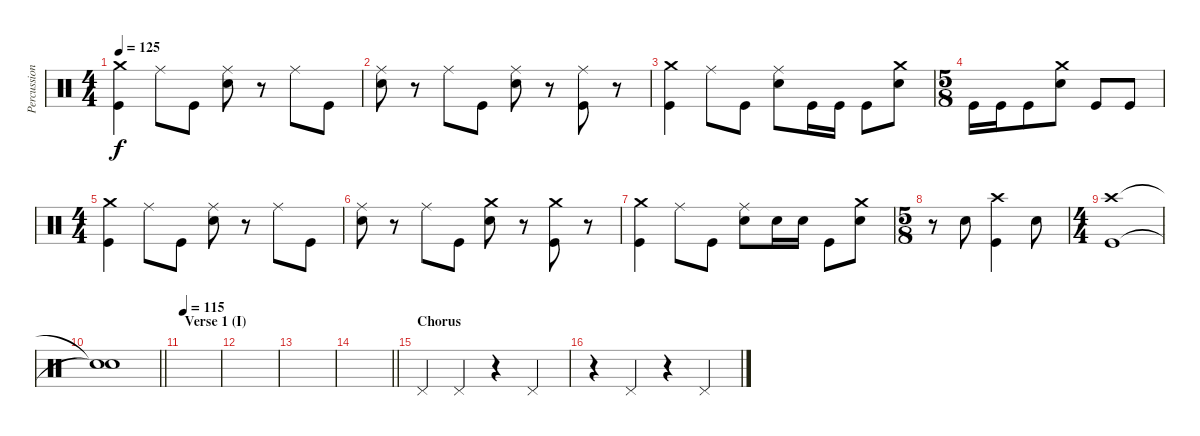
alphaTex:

\track ("Percussion" "Percussion") {instrument percussion}
\staff {score}
\articulation defaults
\ts (4 4)
\tempo 125
\clef neutral
\ks c
("Crash medium (hit)" "Kick (hit)").4{dy f} "Ride (middle)".8 "Kick (hit)".8 ("Ride (middle)" "Snare (hit) 2").8 r.8 "Ride (middle)".8 "Kick (hit)".8 |
("Ride (middle)" "Snare (hit) 2").8 r.8 "Ride (middle)".8 "Kick (hit)".8 ("Ride (middle)" "Snare (hit) 2").8 r.8 ("Ride (middle)" "Kick (hit)").8 r.8 |
("Crash medium (hit)" "Kick (hit)").4 "Ride (middle)".8 "Kick (hit)".8 ("Ride (middle)" "Snare (hit) 2").8 "Kick (hit)".16 "Kick (hit)".16 "Kick (hit)".8 ("Crash medium (hit)" "Snare (hit) 2").8 |
\ts (5 8)
"Kick (hit)".16 "Kick (hit)".16 "Kick (hit)".8 ("Crash medium (hit)" "Snare (hit) 2").8 "Kick (hit)".8 "Kick (hit)".8 |
\ts (4 4)
("Crash medium (hit)" "Kick (hit)").4 "Ride (middle)".8 "Kick (hit)".8 ("Ride (middle)" "Snare (hit) 2").8 r.8 "Ride (middle)".8 "Kick (hit)".8 |
("Ride (middle)" "Snare (hit) 2").8 r.8 "Ride (middle)".8 "Kick (hit)".8 ("Crash medium (hit)" "Snare (hit) 2").8 r.8 ("Crash medium (hit)" "Kick (hit)").8 r.8 |
("Crash medium (hit)" "Kick (hit)").4 "Ride (middle)".8 "Kick (hit)".8 ("Ride (middle)" "Snare (hit) 2").8 "Snare (hit) 2".16 "Snare (hit) 2".16 "Kick (hit)".8 ("Crash medium (hit)" "Snare (hit) 2").8 |
\ts (5 8)
r.8 "Snare (hit) 2".8 ("Crash high (hit)" "Kick (hit)").4 "Snare (hit) 2".8 |
\ts (4 4)
("Crash high (hit)" "Kick (hit)").1 |
\barLineRight lightlight
("Snare (hit)"{t} "Snare (hit)"{t}).1 |
\section ("" "Verse 1 (I)")
\tempo 115
|
|
|
\barLineRight lightlight
|
\section ("" "Chorus")
"Pedal Hi-Hat (hit)".4 "Pedal Hi-Hat (hit)".4 r.4 "Pedal Hi-Hat (hit)".4 |
r.4 "Pedal Hi-Hat (hit)".4 r.4 "Pedal Hi-Hat (hit)".4
